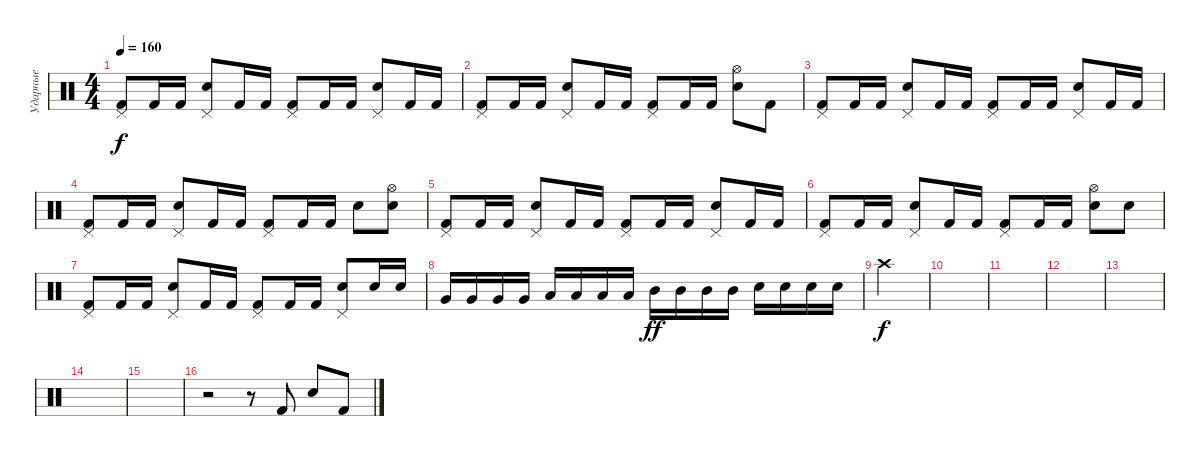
\track ("Ударные" "Ударные") {instrument percussion}
\staff {score}
\articulation defaults
\ts (4 4)
\tempo 160
\clef neutral
\ks c
("Kick (hit) 2" "Pedal Hi-Hat (hit)").8{dy f} "Kick (hit) 2".16 "Kick (hit) 2".16 ("Snare (hit) 2" "Pedal Hi-Hat (hit)").8 "Kick (hit) 2".16 "Kick (hit) 2".16 ("Kick (hit) 2" "Pedal Hi-Hat (hit)").8 "Kick (hit) 2".16 "Kick (hit) 2".16 ("Snare (hit) 2" "Pedal Hi-Hat (hit)").8 "Kick (hit) 2".16 "Kick (hit) 2".16 |
("Kick (hit) 2" "Pedal Hi-Hat (hit)").8 "Kick (hit) 2".16 "Kick (hit) 2".16 ("Snare (hit) 2" "Pedal Hi-Hat (hit)").8 "Kick (hit) 2".16 "Kick (hit) 2".16 ("Kick (hit) 2" "Pedal Hi-Hat (hit)").8 "Kick (hit) 2".16 "Kick (hit) 2".16 ("Snare (hit) 2" "Hi-Hat (open)").8 "Kick (hit) 2".8 |
("Kick (hit) 2" "Pedal Hi-Hat (hit)").8 "Kick (hit) 2".16 "Kick (hit) 2".16 ("Snare (hit) 2" "Pedal Hi-Hat (hit)").8 "Kick (hit) 2".16 "Kick (hit) 2".16 ("Kick (hit) 2" "Pedal Hi-Hat (hit)").8 "Kick (hit) 2".16 "Kick (hit) 2".16 ("Snare (hit) 2" "Pedal Hi-Hat (hit)").8 "Kick (hit) 2".16 "Kick (hit) 2".16 |
("Kick (hit) 2" "Pedal Hi-Hat (hit)").8 "Kick (hit) 2".16 "Kick (hit) 2".16 ("Snare (hit) 2" "Pedal Hi-Hat (hit)").8 "Kick (hit) 2".16 "Kick (hit) 2".16 ("Kick (hit) 2" "Pedal Hi-Hat (hit)").8 "Kick (hit) 2".16 "Kick (hit) 2".16 "Snare (hit) 2".8 ("Snare (hit) 2" "Hi-Hat (open)").8 |
("Kick (hit) 2" "Pedal Hi-Hat (hit)").8 "Kick (hit) 2".16 "Kick (hit) 2".16 ("Snare (hit) 2" "Pedal Hi-Hat (hit)").8 "Kick (hit) 2".16 "Kick (hit) 2".16 ("Kick (hit) 2" "Pedal Hi-Hat (hit)").8 "Kick (hit) 2".16 "Kick (hit) 2".16 ("Snare (hit) 2" "Pedal Hi-Hat (hit)").8 "Kick (hit) 2".16 "Kick (hit) 2".16 |
("Kick (hit) 2" "Pedal Hi-Hat (hit)").8 "Kick (hit) 2".16 "Kick (hit) 2".16 ("Snare (hit) 2" "Pedal Hi-Hat (hit)").8 "Kick (hit) 2".16 "Kick (hit) 2".16 ("Kick (hit) 2" "Pedal Hi-Hat (hit)").8 "Kick (hit) 2".16 "Kick (hit) 2".16 ("Snare (hit) 2" "Hi-Hat (open)").8 "Snare (hit) 2".8 |
("Kick (hit) 2" "Pedal Hi-Hat (hit)").8 "Kick (hit) 2".16 "Kick (hit) 2".16 ("Snare (hit) 2" "Pedal Hi-Hat (hit)").8 "Kick (hit) 2".16 "Kick (hit) 2".16 ("Kick (hit) 2" "Pedal Hi-Hat (hit)").8 "Kick (hit) 2".16 "Kick (hit) 2".16 ("Snare (hit) 2" "Pedal Hi-Hat (hit)").8 "Snare (hit) 2".16 "Snare (hit) 2".16 |
"Very Low Tom (hit)".16 "Very Low Tom (hit)".16 "Very Low Tom (hit)".16 "Very Low Tom (hit)".16 "Low Tom (hit)".16 "Low Tom (hit)".16 "Low Tom (hit)".16 "Low Tom (hit)".16 "Mid Tom (hit)".16{dy ff} "Mid Tom (hit)".16 "Mid Tom (hit)".16 "Mid Tom (hit)".16 "Snare (hit) 2".16 "Snare (hit) 2".16 "Snare (hit) 2".16 "Snare (hit) 2".16 |
"Crash high (hit)".2{dy f} |
|
|
|
|
|
|
r.2 r.8 "Kick (hit) 2".8 "Snare (hit) 2".8 "Kick (hit) 2".8
